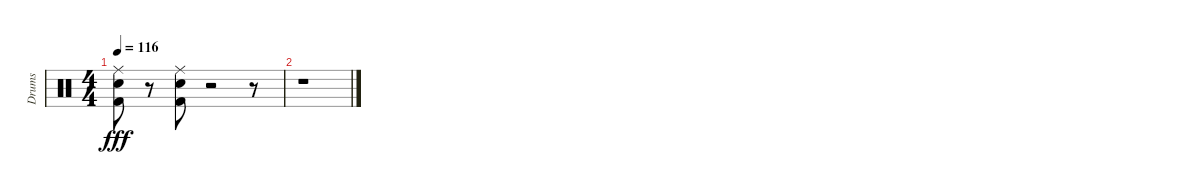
\track ("Drums" "Drums") {instrument percussion}
\staff {score}
\articulation defaults
\ts (4 4)
\tempo 116
\clef neutral
\ks c
("Ride (middle)" "Snare (hit) 2" "Kick (hit) 2").8{dy fff} r.8 ("Ride (middle)" "Snare (hit) 2" "Kick (hit) 2").8 r.2 r.8 |
r.1
